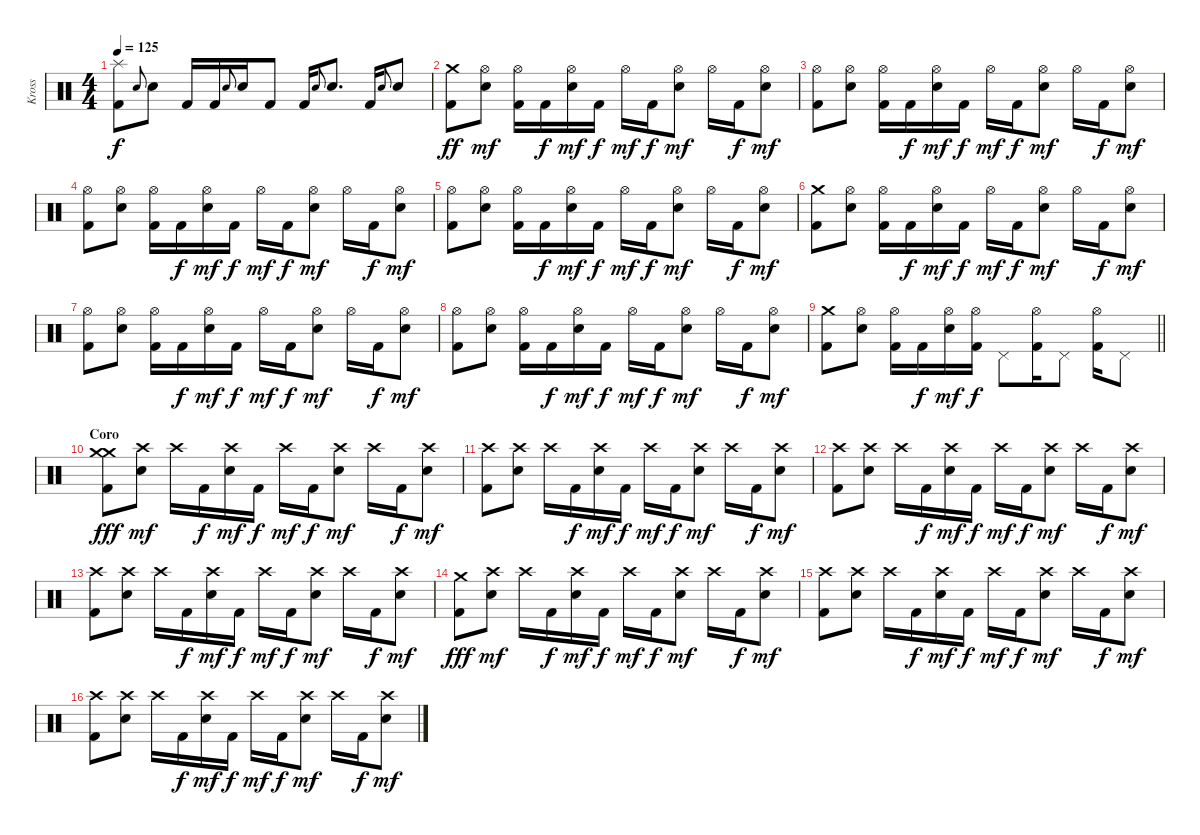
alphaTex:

\track ("Kross" "Kross") {instrument percussion}
\staff {score}
\articulation defaults
\ts (4 4)
\tempo 125
\clef neutral
\ks c
("Splash (hit)" "Kick (hit) 2").8{dy f} "Snare (hit) 2".8{gr onbeat} "Snare (hit) 2".8 "Kick (hit) 2".16 "Kick (hit) 2".16 "Snare (hit) 2".8{gr onbeat} "Snare (hit) 2".16 "Kick (hit) 2".8 "Kick (hit) 2".16 "Snare (hit) 2".8{gr onbeat} "Snare (hit) 2".8{d} "Kick (hit) 2".16 "Snare (hit) 2".8{gr onbeat} "Snare (hit) 2".8 |
("Crash medium (hit)" "Kick (hit) 2").8{dy ff} ("Hi-Hat (open)" "Snare (hit) 2").8{dy mf} ("Hi-Hat (open)" "Kick (hit) 2").16 "Kick (hit) 2".16{dy f} ("Hi-Hat (open)" "Snare (hit) 2").16{dy mf} "Kick (hit) 2".16{dy f} "Hi-Hat (open)".16{dy mf} "Kick (hit) 2".16{dy f} ("Hi-Hat (open)" "Snare (hit) 2").8{dy mf} "Hi-Hat (open)".16 "Kick (hit) 2".16{dy f} ("Hi-Hat (open)" "Snare (hit) 2").8{dy mf} |
("Hi-Hat (open)" "Kick (hit) 2").8 ("Hi-Hat (open)" "Snare (hit) 2").8 ("Hi-Hat (open)" "Kick (hit) 2").16 "Kick (hit) 2".16{dy f} ("Hi-Hat (open)" "Snare (hit) 2").16{dy mf} "Kick (hit) 2".16{dy f} "Hi-Hat (open)".16{dy mf} "Kick (hit) 2".16{dy f} ("Hi-Hat (open)" "Snare (hit) 2").8{dy mf} "Hi-Hat (open)".16 "Kick (hit) 2".16{dy f} ("Hi-Hat (open)" "Snare (hit) 2").8{dy mf} |
("Hi-Hat (open)" "Kick (hit) 2").8 ("Hi-Hat (open)" "Snare (hit) 2").8 ("Hi-Hat (open)" "Kick (hit) 2").16 "Kick (hit) 2".16{dy f} ("Hi-Hat (open)" "Snare (hit) 2").16{dy mf} "Kick (hit) 2".16{dy f} "Hi-Hat (open)".16{dy mf} "Kick (hit) 2".16{dy f} ("Hi-Hat (open)" "Snare (hit) 2").8{dy mf} "Hi-Hat (open)".16 "Kick (hit) 2".16{dy f} ("Hi-Hat (open)" "Snare (hit) 2").8{dy mf} |
("Hi-Hat (open)" "Kick (hit) 2").8 ("Hi-Hat (open)" "Snare (hit) 2").8 ("Hi-Hat (open)" "Kick (hit) 2").16 "Kick (hit) 2".16{dy f} ("Hi-Hat (open)" "Snare (hit) 2").16{dy mf} "Kick (hit) 2".16{dy f} "Hi-Hat (open)".16{dy mf} "Kick (hit) 2".16{dy f} ("Hi-Hat (open)" "Snare (hit) 2").8{dy mf} "Hi-Hat (open)".16 "Kick (hit) 2".16{dy f} ("Hi-Hat (open)" "Snare (hit) 2").8{dy mf} |
("Crash medium (hit)" "Kick (hit) 2").8 ("Hi-Hat (open)" "Snare (hit) 2").8 ("Hi-Hat (open)" "Kick (hit) 2").16 "Kick (hit) 2".16{dy f} ("Hi-Hat (open)" "Snare (hit) 2").16{dy mf} "Kick (hit) 2".16{dy f} "Hi-Hat (open)".16{dy mf} "Kick (hit) 2".16{dy f} ("Hi-Hat (open)" "Snare (hit) 2").8{dy mf} "Hi-Hat (open)".16 "Kick (hit) 2".16{dy f} ("Hi-Hat (open)" "Snare (hit) 2").8{dy mf} |
("Hi-Hat (open)" "Kick (hit) 2").8 ("Hi-Hat (open)" "Snare (hit) 2").8 ("Hi-Hat (open)" "Kick (hit) 2").16 "Kick (hit) 2".16{dy f} ("Hi-Hat (open)" "Snare (hit) 2").16{dy mf} "Kick (hit) 2".16{dy f} "Hi-Hat (open)".16{dy mf} "Kick (hit) 2".16{dy f} ("Hi-Hat (open)" "Snare (hit) 2").8{dy mf} "Hi-Hat (open)".16 "Kick (hit) 2".16{dy f} ("Hi-Hat (open)" "Snare (hit) 2").8{dy mf} |
("Hi-Hat (open)" "Kick (hit) 2").8 ("Hi-Hat (open)" "Snare (hit) 2").8 ("Hi-Hat (open)" "Kick (hit) 2").16 "Kick (hit) 2".16{dy f} ("Hi-Hat (open)" "Snare (hit) 2").16{dy mf} "Kick (hit) 2".16{dy f} "Hi-Hat (open)".16{dy mf} "Kick (hit) 2".16{dy f} ("Hi-Hat (open)" "Snare (hit) 2").8{dy mf} "Hi-Hat (open)".16 "Kick (hit) 2".16{dy f} ("Hi-Hat (open)" "Snare (hit) 2").8{dy mf} |
\barLineRight lightlight
("Crash medium (hit)" "Kick (hit) 2").8 ("Hi-Hat (open)" "Snare (hit) 2").8 ("Hi-Hat (open)" "Kick (hit) 2").16 "Kick (hit) 2".16{dy f} ("Hi-Hat (open)" "Snare (hit) 2").16{dy mf} ("Hi-Hat (open)" "Kick (hit) 2").16{dy f} "Pedal Hi-Hat (hit)".8 ("Hi-Hat (open)" "Kick (hit) 2").16 "Pedal Hi-Hat (hit)".8 ("Hi-Hat (open)" "Kick (hit) 2").16 "Pedal Hi-Hat (hit)".8 |
\section ("" "Coro")
("Crash medium (hit)" "Crash medium (hit)" "Kick (hit) 2").8{dy fff} ("Crash high (hit)" "Snare (hit) 2").8{dy mf} "Crash high (hit)".16 "Kick (hit) 2".16{dy f} ("Crash high (hit)" "Snare (hit) 2").16{dy mf} "Kick (hit) 2".16{dy f} "Crash high (hit)".16{dy mf} "Kick (hit) 2".16{dy f} ("Crash high (hit)" "Snare (hit) 2").8{dy mf} "Crash high (hit)".16 "Kick (hit) 2".16{dy f} ("Crash high (hit)" "Snare (hit) 2").8{dy mf} |
("Crash high (hit)" "Kick (hit) 2").8 ("Crash high (hit)" "Snare (hit) 2").8 "Crash high (hit)".16 "Kick (hit) 2".16{dy f} ("Crash high (hit)" "Snare (hit) 2").16{dy mf} "Kick (hit) 2".16{dy f} "Crash high (hit)".16{dy mf} "Kick (hit) 2".16{dy f} ("Crash high (hit)" "Snare (hit) 2").8{dy mf} "Crash high (hit)".16 "Kick (hit) 2".16{dy f} ("Crash high (hit)" "Snare (hit) 2").8{dy mf} |
("Crash high (hit)" "Kick (hit) 2").8 ("Crash high (hit)" "Snare (hit) 2").8 "Crash high (hit)".16 "Kick (hit) 2".16{dy f} ("Crash high (hit)" "Snare (hit) 2").16{dy mf} "Kick (hit) 2".16{dy f} "Crash high (hit)".16{dy mf} "Kick (hit) 2".16{dy f} ("Crash high (hit)" "Snare (hit) 2").8{dy mf} "Crash high (hit)".16 "Kick (hit) 2".16{dy f} ("Crash high (hit)" "Snare (hit) 2").8{dy mf} |
("Crash high (hit)" "Kick (hit) 2").8 ("Crash high (hit)" "Snare (hit) 2").8 "Crash high (hit)".16 "Kick (hit) 2".16{dy f} ("Crash high (hit)" "Snare (hit) 2").16{dy mf} "Kick (hit) 2".16{dy f} "Crash high (hit)".16{dy mf} "Kick (hit) 2".16{dy f} ("Crash high (hit)" "Snare (hit) 2").8{dy mf} "Crash high (hit)".16 "Kick (hit) 2".16{dy f} ("Crash high (hit)" "Snare (hit) 2").8{dy mf} |
("Crash medium (hit)" "Kick (hit) 2").8{dy fff} ("Crash high (hit)" "Snare (hit) 2").8{dy mf} "Crash high (hit)".16 "Kick (hit) 2".16{dy f} ("Crash high (hit)" "Snare (hit) 2").16{dy mf} "Kick (hit) 2".16{dy f} "Crash high (hit)".16{dy mf} "Kick (hit) 2".16{dy f} ("Crash high (hit)" "Snare (hit) 2").8{dy mf} "Crash high (hit)".16 "Kick (hit) 2".16{dy f} ("Crash high (hit)" "Snare (hit) 2").8{dy mf} |
("Crash high (hit)" "Kick (hit) 2").8 ("Crash high (hit)" "Snare (hit) 2").8 "Crash high (hit)".16 "Kick (hit) 2".16{dy f} ("Crash high (hit)" "Snare (hit) 2").16{dy mf} "Kick (hit) 2".16{dy f} "Crash high (hit)".16{dy mf} "Kick (hit) 2".16{dy f} ("Crash high (hit)" "Snare (hit) 2").8{dy mf} "Crash high (hit)".16 "Kick (hit) 2".16{dy f} ("Crash high (hit)" "Snare (hit) 2").8{dy mf} |
("Crash high (hit)" "Kick (hit) 2").8 ("Crash high (hit)" "Snare (hit) 2").8 "Crash high (hit)".16 "Kick (hit) 2".16{dy f} ("Crash high (hit)" "Snare (hit) 2").16{dy mf} "Kick (hit) 2".16{dy f} "Crash high (hit)".16{dy mf} "Kick (hit) 2".16{dy f} ("Crash high (hit)" "Snare (hit) 2").8{dy mf} "Crash high (hit)".16 "Kick (hit) 2".16{dy f} ("Crash high (hit)" "Snare (hit) 2").8{dy mf}
